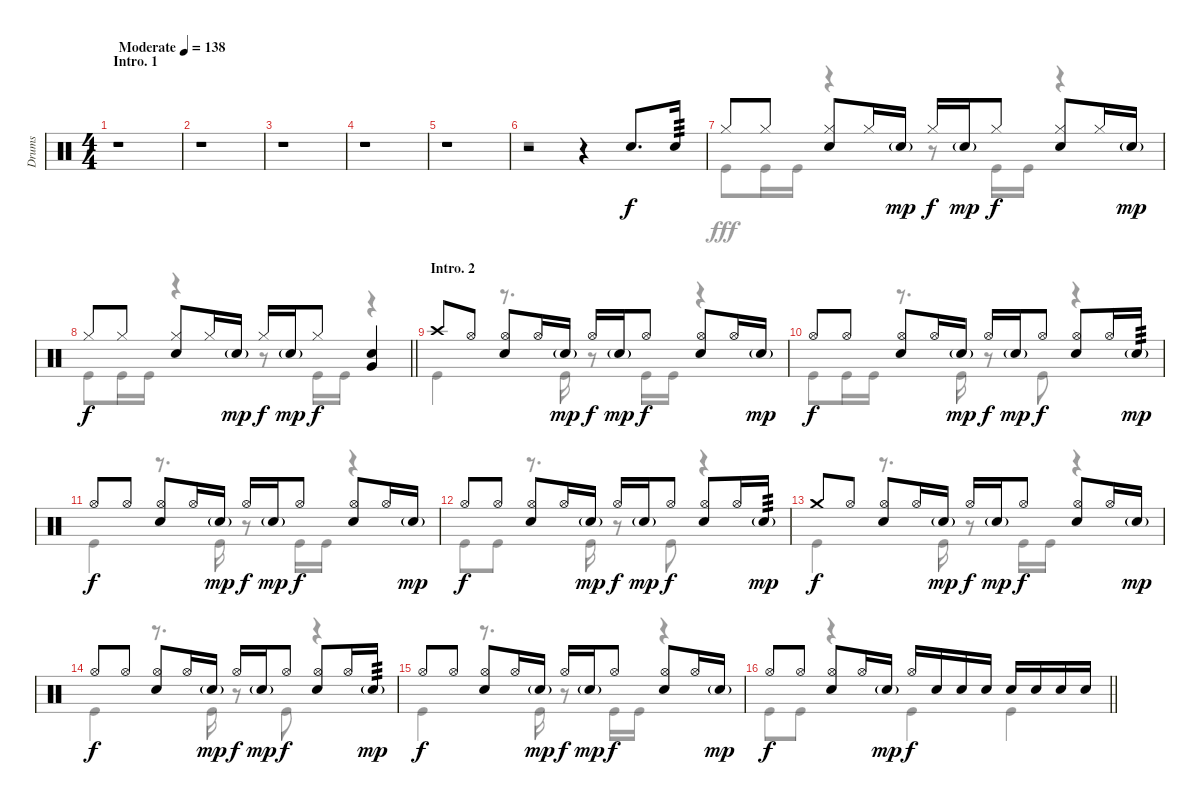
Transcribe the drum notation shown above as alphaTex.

\track ("Drums" "Drums") {instrument percussion}
\staff {score}
\articulation defaults
\voice
\ts (4 4)
\section ("" "Intro. 1")
\tempo (138 "Moderate")
\clef neutral
\ks c
r.1{dy f} |
r.1 |
r.1 |
r.1 |
r.1 |
r.2 r.4 "Snare (hit) 2".8{d} "Snare (hit) 2".16{tp 3} |
"Hi-Hat (closed)".8 "Hi-Hat (closed)".8 ("Hi-Hat (closed)" "Snare (hit) 2").8 "Hi-Hat (closed)".16 "Snare (hit) 2"{g}.16{dy mp} "Hi-Hat (closed)".16{dy f} "Snare (hit) 2"{g}.16{dy mp} "Hi-Hat (closed)".8{dy f} ("Hi-Hat (closed)" "Snare (hit) 2").8 "Hi-Hat (closed)".16 "Snare (hit) 2"{g}.16{dy mp} |
\barLineRight lightlight "Hi-Hat (closed)".8{dy f} "Hi-Hat (closed)".8
("Hi-Hat (closed)" "Snare (hit) 2").8 "Hi-Hat (closed)".16 "Snare (hit) 2"{g}.16{dy mp} "Hi-Hat (closed)".16{dy f} "Snare (hit) 2"{g}.16{dy mp} "Hi-Hat (closed)".8{dy f} ("Snare (hit) 2" "Very Low Tom (hit)").4 |
\section ("" "Intro. 2")
"Crash high (hit)".8 "Hi-Hat (open)".8 ("Hi-Hat (open)" "Snare (hit) 2").8 "Hi-Hat (open)".16 "Snare (hit) 2"{g}.16{dy mp} "Hi-Hat (open)".16{dy f} "Snare (hit) 2"{g}.16{dy mp} "Hi-Hat (open)".8{dy f} ("Hi-Hat (open)" "Snare (hit) 2").8 "Hi-Hat (open)".16 "Snare (hit) 2"{g}.16{dy mp} |
"Hi-Hat (open)".8{dy f} "Hi-Hat (open)".8 ("Hi-Hat (open)" "Snare (hit) 2").8 "Hi-Hat (open)".16 "Snare (hit) 2"{g}.16{dy mp} "Hi-Hat (open)".16{dy f} "Snare (hit) 2"{g}.16{dy mp} "Hi-Hat (open)".8{dy f} ("Hi-Hat (open)" "Snare (hit) 2").8 "Hi-Hat (open)".16 "Snare (hit) 2"{g}.16{tp 3 dy mp} |
"Hi-Hat (open)".8{dy f} "Hi-Hat (open)".8 ("Hi-Hat (open)" "Snare (hit) 2").8 "Hi-Hat (open)".16 "Snare (hit) 2"{g}.16{dy mp} "Hi-Hat (open)".16{dy f} "Snare (hit) 2"{g}.16{dy mp} "Hi-Hat (open)".8{dy f} ("Hi-Hat (open)" "Snare (hit) 2").8 "Hi-Hat (open)".16 "Snare (hit) 2"{g}.16{dy mp} |
"Hi-Hat (open)".8{dy f} "Hi-Hat (open)".8 ("Hi-Hat (open)" "Snare (hit) 2").8 "Hi-Hat (open)".16 "Snare (hit) 2"{g}.16{dy mp} "Hi-Hat (open)".16{dy f} "Snare (hit) 2"{g}.16{dy mp} "Hi-Hat (open)".8{dy f} ("Hi-Hat (open)" "Snare (hit) 2").8 "Hi-Hat (open)".16 "Snare (hit) 2"{g}.16{tp 3 dy mp} |
"Crash medium (hit)".8{dy f} "Hi-Hat (open)".8 ("Hi-Hat (open)" "Snare (hit) 2").8 "Hi-Hat (open)".16 "Snare (hit) 2"{g}.16{dy mp} "Hi-Hat (open)".16{dy f} "Snare (hit) 2"{g}.16{dy mp} "Hi-Hat (open)".8{dy f} ("Hi-Hat (open)" "Snare (hit) 2").8 "Hi-Hat (open)".16 "Snare (hit) 2"{g}.16{dy mp} |
"Hi-Hat (open)".8{dy f} "Hi-Hat (open)".8 ("Hi-Hat (open)" "Snare (hit) 2").8 "Hi-Hat (open)".16 "Snare (hit) 2"{g}.16{dy mp} "Hi-Hat (open)".16{dy f} "Snare (hit) 2"{g}.16{dy mp} "Hi-Hat (open)".8{dy f} ("Hi-Hat (open)" "Snare (hit) 2").8 "Hi-Hat (open)".16 "Snare (hit) 2"{g}.16{tp 3 dy mp} |
"Hi-Hat (open)".8{dy f} "Hi-Hat (open)".8 ("Hi-Hat (open)" "Snare (hit) 2").8 "Hi-Hat (open)".16 "Snare (hit) 2"{g}.16{dy mp} "Hi-Hat (open)".16{dy f} "Snare (hit) 2"{g}.16{dy mp} "Hi-Hat (open)".8{dy f} ("Hi-Hat (open)" "Snare (hit) 2").8 "Hi-Hat (open)".16 "Snare (hit) 2"{g}.16{dy mp} |
\barLineRight lightlight "Hi-Hat (open)".8{dy f} "Hi-Hat (open)".8
("Hi-Hat (open)" "Snare (hit) 2").8 "Hi-Hat (open)".16 "Snare (hit) 2"{g}.16{dy mp} "Hi-Hat (open)".16{dy f} "Snare (hit) 2".16 "Snare (hit) 2".16 "Snare (hit) 2".16 "Snare (hit) 2".16 "Snare (hit) 2".16 "Snare (hit) 2".16 "Snare (hit) 2".16
\voice
\clef neutral
\ottava regular
\simile none
\ks c
r.1{dy fff} |
r.1 |
r.1 |
r.1 |
r.1 |
r.1 |
"Kick (hit)".8 "Kick (hit)".16 "Kick (hit)".16 r.4 r.8 "Kick (hit)".16 "Kick (hit)".16 r.4 |
\barLineRight lightlight "Kick (hit)".8 "Kick (hit)".16 "Kick (hit)".16
r.4 r.8 "Kick (hit)".16 "Kick (hit)".16 r.4 |
"Kick (hit)".4 r.8{d} "Kick (hit)".16 r.8 "Kick (hit)".16 "Kick (hit)".16 r.4 |
"Kick (hit)".8 "Kick (hit)".16 "Kick (hit)".16 r.8{d} "Kick (hit)".16 r.8 "Kick (hit)".8 r.4 |
"Kick (hit)".4 r.8{d} "Kick (hit)".16 r.8 "Kick (hit)".16 "Kick (hit)".16 r.4 |
"Kick (hit)".8 "Kick (hit)".8 r.8{d} "Kick (hit)".16 r.8 "Kick (hit)".8 r.4 |
"Kick (hit)".4 r.8{d} "Kick (hit)".16 r.8 "Kick (hit)".16 "Kick (hit)".16 r.4 |
"Kick (hit)".4 r.8{d} "Kick (hit)".16 r.8 "Kick (hit)".8 r.4 |
"Kick (hit)".4 r.8{d} "Kick (hit)".16 r.8 "Kick (hit)".16 "Kick (hit)".16 r.4 |
\barLineRight lightlight "Kick (hit)".8 "Kick (hit)".8
r.4 "Kick (hit)".4 "Kick (hit)".4
